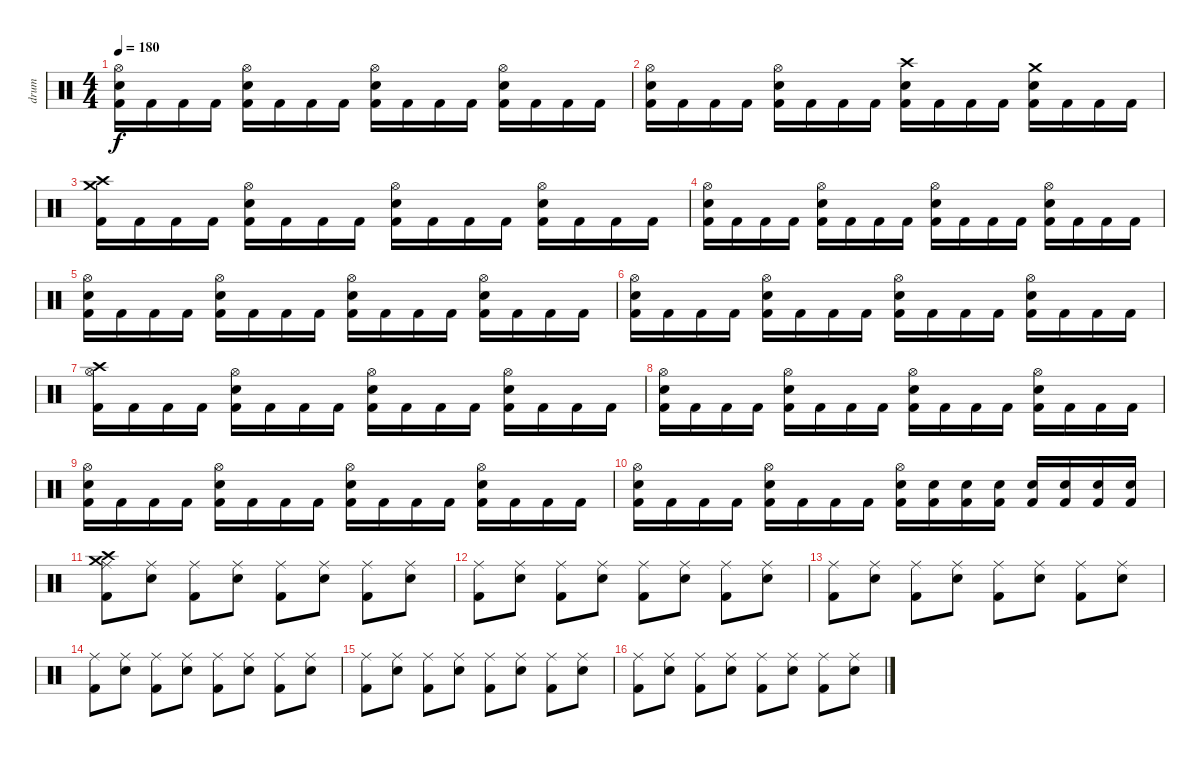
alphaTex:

\track ("drum" "drum") {instrument percussion}
\staff {score}
\articulation defaults
\ts (4 4)
\tempo 180
\clef neutral
\ks c
("Hi-Hat (open)" "Electric Snare (hit)" "Kick (hit) 2").16{dy f} "Kick (hit) 2".16 "Kick (hit) 2".16 "Kick (hit) 2".16 ("Hi-Hat (open)" "Electric Snare (hit)" "Kick (hit) 2").16 "Kick (hit) 2".16 "Kick (hit) 2".16 "Kick (hit) 2".16 ("Hi-Hat (open)" "Electric Snare (hit)" "Kick (hit) 2").16 "Kick (hit) 2".16 "Kick (hit) 2".16 "Kick (hit) 2".16 ("Hi-Hat (open)" "Electric Snare (hit)" "Kick (hit) 2").16 "Kick (hit) 2".16 "Kick (hit) 2".16 "Kick (hit) 2".16 |
("Hi-Hat (open)" "Electric Snare (hit)" "Kick (hit) 2").16 "Kick (hit) 2".16 "Kick (hit) 2".16 "Kick (hit) 2".16 ("Hi-Hat (open)" "Electric Snare (hit)" "Kick (hit) 2").16 "Kick (hit) 2".16 "Kick (hit) 2".16 "Kick (hit) 2".16 ("Crash high (hit)" "Electric Snare (hit)" "Kick (hit) 2").16 "Kick (hit) 2".16 "Kick (hit) 2".16 "Kick (hit) 2".16 ("Crash medium (hit)" "Electric Snare (hit)" "Kick (hit) 2").16 "Kick (hit) 2".16 "Kick (hit) 2".16 "Kick (hit) 2".16 |
("Crash medium (hit)" "Crash high (hit)" "Kick (hit) 2").16 "Kick (hit) 2".16 "Kick (hit) 2".16 "Kick (hit) 2".16 ("Hi-Hat (open)" "Electric Snare (hit)" "Kick (hit) 2").16 "Kick (hit) 2".16 "Kick (hit) 2".16 "Kick (hit) 2".16 ("Hi-Hat (open)" "Electric Snare (hit)" "Kick (hit) 2").16 "Kick (hit) 2".16 "Kick (hit) 2".16 "Kick (hit) 2".16 ("Hi-Hat (open)" "Electric Snare (hit)" "Kick (hit) 2").16 "Kick (hit) 2".16 "Kick (hit) 2".16 "Kick (hit) 2".16 |
("Hi-Hat (open)" "Electric Snare (hit)" "Kick (hit) 2").16 "Kick (hit) 2".16 "Kick (hit) 2".16 "Kick (hit) 2".16 ("Hi-Hat (open)" "Electric Snare (hit)" "Kick (hit) 2").16 "Kick (hit) 2".16 "Kick (hit) 2".16 "Kick (hit) 2".16 ("Hi-Hat (open)" "Electric Snare (hit)" "Kick (hit) 2").16 "Kick (hit) 2".16 "Kick (hit) 2".16 "Kick (hit) 2".16 ("Hi-Hat (open)" "Electric Snare (hit)" "Kick (hit) 2").16 "Kick (hit) 2".16 "Kick (hit) 2".16 "Kick (hit) 2".16 |
("Hi-Hat (open)" "Electric Snare (hit)" "Kick (hit) 2").16 "Kick (hit) 2".16 "Kick (hit) 2".16 "Kick (hit) 2".16 ("Hi-Hat (open)" "Electric Snare (hit)" "Kick (hit) 2").16 "Kick (hit) 2".16 "Kick (hit) 2".16 "Kick (hit) 2".16 ("Hi-Hat (open)" "Electric Snare (hit)" "Kick (hit) 2").16 "Kick (hit) 2".16 "Kick (hit) 2".16 "Kick (hit) 2".16 ("Hi-Hat (open)" "Electric Snare (hit)" "Kick (hit) 2").16 "Kick (hit) 2".16 "Kick (hit) 2".16 "Kick (hit) 2".16 |
("Hi-Hat (open)" "Electric Snare (hit)" "Kick (hit) 2").16 "Kick (hit) 2".16 "Kick (hit) 2".16 "Kick (hit) 2".16 ("Hi-Hat (open)" "Electric Snare (hit)" "Kick (hit) 2").16 "Kick (hit) 2".16 "Kick (hit) 2".16 "Kick (hit) 2".16 ("Hi-Hat (open)" "Electric Snare (hit)" "Kick (hit) 2").16 "Kick (hit) 2".16 "Kick (hit) 2".16 "Kick (hit) 2".16 ("Hi-Hat (open)" "Electric Snare (hit)" "Kick (hit) 2").16 "Kick (hit) 2".16 "Kick (hit) 2".16 "Kick (hit) 2".16 |
("Hi-Hat (open)" "Crash high (hit)" "Kick (hit) 2").16 "Kick (hit) 2".16 "Kick (hit) 2".16 "Kick (hit) 2".16 ("Hi-Hat (open)" "Electric Snare (hit)" "Kick (hit) 2").16 "Kick (hit) 2".16 "Kick (hit) 2".16 "Kick (hit) 2".16 ("Hi-Hat (open)" "Electric Snare (hit)" "Kick (hit) 2").16 "Kick (hit) 2".16 "Kick (hit) 2".16 "Kick (hit) 2".16 ("Hi-Hat (open)" "Electric Snare (hit)" "Kick (hit) 2").16 "Kick (hit) 2".16 "Kick (hit) 2".16 "Kick (hit) 2".16 |
("Hi-Hat (open)" "Electric Snare (hit)" "Kick (hit) 2").16 "Kick (hit) 2".16 "Kick (hit) 2".16 "Kick (hit) 2".16 ("Hi-Hat (open)" "Electric Snare (hit)" "Kick (hit) 2").16 "Kick (hit) 2".16 "Kick (hit) 2".16 "Kick (hit) 2".16 ("Hi-Hat (open)" "Electric Snare (hit)" "Kick (hit) 2").16 "Kick (hit) 2".16 "Kick (hit) 2".16 "Kick (hit) 2".16 ("Hi-Hat (open)" "Electric Snare (hit)" "Kick (hit) 2").16 "Kick (hit) 2".16 "Kick (hit) 2".16 "Kick (hit) 2".16 |
("Hi-Hat (open)" "Electric Snare (hit)" "Kick (hit) 2").16 "Kick (hit) 2".16 "Kick (hit) 2".16 "Kick (hit) 2".16 ("Hi-Hat (open)" "Electric Snare (hit)" "Kick (hit) 2").16 "Kick (hit) 2".16 "Kick (hit) 2".16 "Kick (hit) 2".16 ("Hi-Hat (open)" "Electric Snare (hit)" "Kick (hit) 2").16 "Kick (hit) 2".16 "Kick (hit) 2".16 "Kick (hit) 2".16 ("Hi-Hat (open)" "Electric Snare (hit)" "Kick (hit) 2").16 "Kick (hit) 2".16 "Kick (hit) 2".16 "Kick (hit) 2".16 |
("Hi-Hat (open)" "Electric Snare (hit)" "Kick (hit) 2").16 "Kick (hit) 2".16 "Kick (hit) 2".16 "Kick (hit) 2".16 ("Hi-Hat (open)" "Electric Snare (hit)" "Kick (hit) 2").16 "Kick (hit) 2".16 "Kick (hit) 2".16 "Kick (hit) 2".16 ("Hi-Hat (open)" "Electric Snare (hit)" "Kick (hit) 2").16 ("Electric Snare (hit)" "Kick (hit) 2").16 ("Electric Snare (hit)" "Kick (hit) 2").16 ("Electric Snare (hit)" "Kick (hit) 2").16 ("Electric Snare (hit)" "Kick (hit) 2").16 ("Electric Snare (hit)" "Kick (hit) 2").16 ("Electric Snare (hit)" "Kick (hit) 2").16 ("Electric Snare (hit)" "Kick (hit) 2").16 |
("Crash medium (hit)" "Ride (middle)" "Crash high (hit)" "Kick (hit) 2").8 ("Ride (middle)" "Electric Snare (hit)").8 ("Ride (middle)" "Kick (hit) 2").8 ("Ride (middle)" "Electric Snare (hit)").8 ("Ride (middle)" "Kick (hit) 2").8 ("Ride (middle)" "Electric Snare (hit)").8 ("Ride (middle)" "Kick (hit) 2").8 ("Ride (middle)" "Electric Snare (hit)").8 |
("Ride (middle)" "Kick (hit) 2").8 ("Ride (middle)" "Electric Snare (hit)").8 ("Ride (middle)" "Kick (hit) 2").8 ("Ride (middle)" "Electric Snare (hit)").8 ("Ride (middle)" "Kick (hit) 2").8 ("Ride (middle)" "Electric Snare (hit)").8 ("Ride (middle)" "Kick (hit) 2").8 ("Ride (middle)" "Electric Snare (hit)").8 |
("Ride (middle)" "Kick (hit) 2").8 ("Ride (middle)" "Electric Snare (hit)").8 ("Ride (middle)" "Kick (hit) 2").8 ("Ride (middle)" "Electric Snare (hit)").8 ("Ride (middle)" "Kick (hit) 2").8 ("Ride (middle)" "Electric Snare (hit)").8 ("Ride (middle)" "Kick (hit) 2").8 ("Ride (middle)" "Electric Snare (hit)").8 |
("Ride (middle)" "Kick (hit) 2").8 ("Ride (middle)" "Electric Snare (hit)").8 ("Ride (middle)" "Kick (hit) 2").8 ("Ride (middle)" "Electric Snare (hit)").8 ("Ride (middle)" "Kick (hit) 2").8 ("Ride (middle)" "Electric Snare (hit)").8 ("Ride (middle)" "Kick (hit) 2").8 ("Ride (middle)" "Electric Snare (hit)").8 |
("Ride (middle)" "Kick (hit) 2").8 ("Ride (middle)" "Electric Snare (hit)").8 ("Ride (middle)" "Kick (hit) 2").8 ("Ride (middle)" "Electric Snare (hit)").8 ("Ride (middle)" "Kick (hit) 2").8 ("Ride (middle)" "Electric Snare (hit)").8 ("Ride (middle)" "Kick (hit) 2").8 ("Ride (middle)" "Electric Snare (hit)").8 |
("Ride (middle)" "Kick (hit) 2").8 ("Ride (middle)" "Electric Snare (hit)").8 ("Ride (middle)" "Kick (hit) 2").8 ("Ride (middle)" "Electric Snare (hit)").8 ("Ride (middle)" "Kick (hit) 2").8 ("Ride (middle)" "Electric Snare (hit)").8 ("Ride (middle)" "Kick (hit) 2").8 ("Ride (middle)" "Electric Snare (hit)").8
